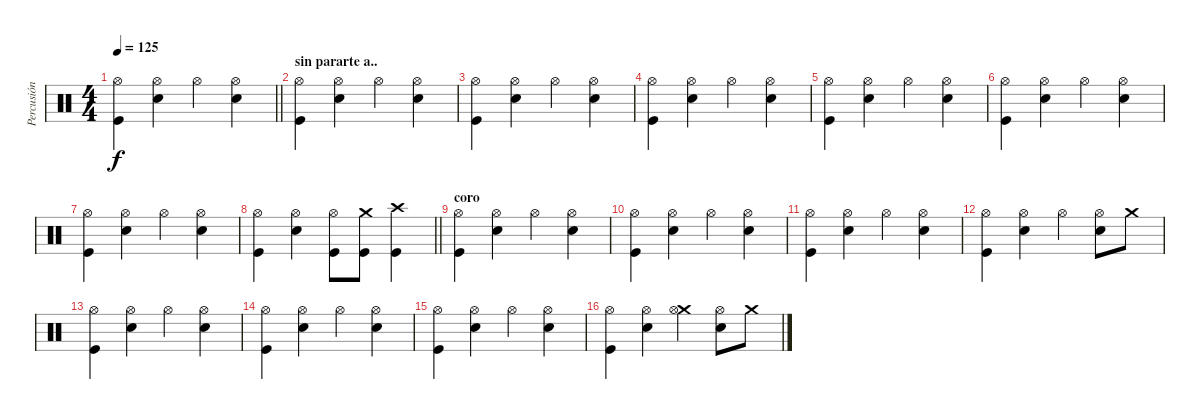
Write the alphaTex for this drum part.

\track ("Percusión" "Percusión") {instrument percussion}
\staff {score}
\articulation defaults
\ts (4 4)
\tempo 125
\clef neutral
\barLineRight lightlight
\ks c
("Hi-Hat (open)" "Kick (hit)").4{dy f} ("Hi-Hat (open)" "Electric Snare (hit)").4 "Hi-Hat (open)".4 ("Hi-Hat (open)" "Electric Snare (hit)").4 |
\section ("" "sin pararte a..")
("Hi-Hat (open)" "Kick (hit)").4{volume 12} ("Hi-Hat (open)" "Electric Snare (hit)").4 "Hi-Hat (open)".4 ("Hi-Hat (open)" "Electric Snare (hit)").4 |
("Hi-Hat (open)" "Kick (hit)").4 ("Hi-Hat (open)" "Electric Snare (hit)").4 "Hi-Hat (open)".4 ("Hi-Hat (open)" "Electric Snare (hit)").4 |
("Hi-Hat (open)" "Kick (hit)").4 ("Hi-Hat (open)" "Electric Snare (hit)").4 "Hi-Hat (open)".4 ("Hi-Hat (open)" "Electric Snare (hit)").4 |
("Hi-Hat (open)" "Kick (hit)").4 ("Hi-Hat (open)" "Electric Snare (hit)").4 "Hi-Hat (open)".4 ("Hi-Hat (open)" "Electric Snare (hit)").4 |
("Hi-Hat (open)" "Kick (hit)").4{volume 12} ("Hi-Hat (open)" "Electric Snare (hit)").4 "Hi-Hat (open)".4 ("Hi-Hat (open)" "Electric Snare (hit)").4 |
("Hi-Hat (open)" "Kick (hit)").4 ("Hi-Hat (open)" "Electric Snare (hit)").4 "Hi-Hat (open)".4 ("Hi-Hat (open)" "Electric Snare (hit)").4 |
\barLineRight lightlight
("Hi-Hat (open)" "Kick (hit)").4 ("Hi-Hat (open)" "Electric Snare (hit)").4 ("Hi-Hat (open)" "Kick (hit)").8 ("Crash medium (hit)" "Kick (hit)").8 ("Crash high (hit)" "Kick (hit)").4 |
\section ("" "coro")
("Hi-Hat (open)" "Kick (hit)").4 ("Hi-Hat (open)" "Electric Snare (hit)").4 "Hi-Hat (open)".4 ("Hi-Hat (open)" "Electric Snare (hit)").4 |
("Hi-Hat (open)" "Kick (hit)").4 ("Hi-Hat (open)" "Electric Snare (hit)").4 "Hi-Hat (open)".4 ("Hi-Hat (open)" "Electric Snare (hit)").4 |
("Hi-Hat (open)" "Kick (hit)").4 ("Hi-Hat (open)" "Electric Snare (hit)").4 "Hi-Hat (open)".4 ("Hi-Hat (open)" "Electric Snare (hit)").4 |
("Hi-Hat (open)" "Kick (hit)").4 ("Hi-Hat (open)" "Electric Snare (hit)").4 "Hi-Hat (open)".4 ("Hi-Hat (open)" "Electric Snare (hit)").8 "Crash medium (hit)".8 |
("Hi-Hat (open)" "Kick (hit)").4 ("Hi-Hat (open)" "Electric Snare (hit)").4 "Hi-Hat (open)".4 ("Hi-Hat (open)" "Electric Snare (hit)").4 |
("Hi-Hat (open)" "Kick (hit)").4 ("Hi-Hat (open)" "Electric Snare (hit)").4 "Hi-Hat (open)".4 ("Hi-Hat (open)" "Electric Snare (hit)").4 |
("Hi-Hat (open)" "Kick (hit)").4 ("Hi-Hat (open)" "Electric Snare (hit)").4 "Hi-Hat (open)".4 ("Hi-Hat (open)" "Electric Snare (hit)").4 |
("Hi-Hat (open)" "Kick (hit)").4 ("Hi-Hat (open)" "Electric Snare (hit)").4 ("Crash medium (hit)" "Hi-Hat (open)").4 ("Hi-Hat (open)" "Electric Snare (hit)").8 "Crash medium (hit)".8
